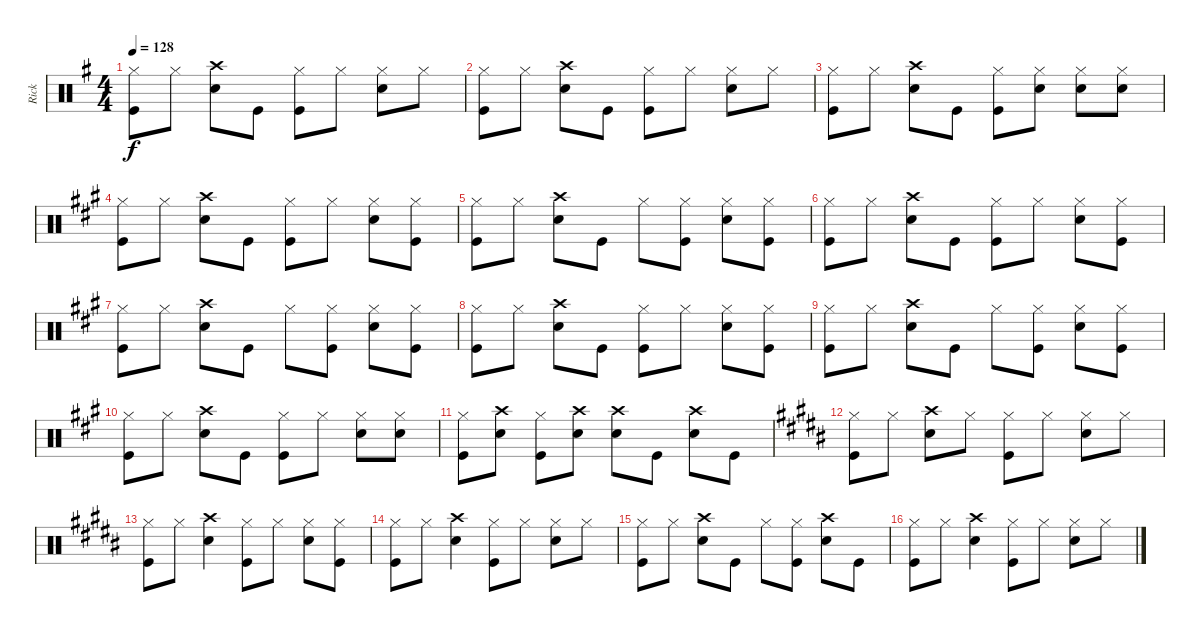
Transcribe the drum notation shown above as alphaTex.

\track ("Rick" "Rick") {instrument percussion}
\staff {score}
\articulation defaults
\ts (4 4)
\tempo 128
\clef neutral
\ks g
("Hi-Hat (closed)" "Kick (hit)").8{dy f} "Hi-Hat (closed)".8 ("Crash high (hit)" "Snare (hit) 2").8 "Kick (hit)".8 ("Hi-Hat (closed)" "Kick (hit)").8 "Hi-Hat (closed)".8 ("Hi-Hat (closed)" "Snare (hit) 2").8 "Hi-Hat (closed)".8 |
("Hi-Hat (closed)" "Kick (hit)").8 "Hi-Hat (closed)".8 ("Crash high (hit)" "Snare (hit) 2").8 "Kick (hit)".8 ("Hi-Hat (closed)" "Kick (hit)").8 "Hi-Hat (closed)".8 ("Hi-Hat (closed)" "Snare (hit) 2").8 "Hi-Hat (closed)".8 |
("Hi-Hat (closed)" "Kick (hit)").8 "Hi-Hat (closed)".8 ("Crash high (hit)" "Snare (hit) 2").8 "Kick (hit)".8 ("Hi-Hat (closed)" "Kick (hit)").8 ("Hi-Hat (closed)" "Snare (hit) 2").8 ("Hi-Hat (closed)" "Snare (hit) 2").8 ("Hi-Hat (closed)" "Snare (hit) 2").8 |
\ks a
("Hi-Hat (closed)" "Kick (hit)").8 "Hi-Hat (closed)".8 ("Crash high (hit)" "Snare (hit) 2").8 "Kick (hit)".8 ("Hi-Hat (closed)" "Kick (hit)").8 "Hi-Hat (closed)".8 ("Hi-Hat (closed)" "Snare (hit) 2").8 ("Hi-Hat (closed)" "Kick (hit)").8 |
("Hi-Hat (closed)" "Kick (hit)").8 "Hi-Hat (closed)".8 ("Crash high (hit)" "Snare (hit) 2").8 "Kick (hit)".8 "Hi-Hat (closed)".8 ("Hi-Hat (closed)" "Kick (hit)").8 ("Hi-Hat (closed)" "Snare (hit) 2").8 ("Hi-Hat (closed)" "Kick (hit)").8 |
("Hi-Hat (closed)" "Kick (hit)").8 "Hi-Hat (closed)".8 ("Crash high (hit)" "Snare (hit) 2").8 "Kick (hit)".8 ("Hi-Hat (closed)" "Kick (hit)").8 "Hi-Hat (closed)".8 ("Hi-Hat (closed)" "Snare (hit) 2").8 ("Hi-Hat (closed)" "Kick (hit)").8 |
("Hi-Hat (closed)" "Kick (hit)").8 "Hi-Hat (closed)".8 ("Crash high (hit)" "Snare (hit) 2").8 "Kick (hit)".8 "Hi-Hat (closed)".8 ("Hi-Hat (closed)" "Kick (hit)").8 ("Hi-Hat (closed)" "Snare (hit) 2").8 ("Hi-Hat (closed)" "Kick (hit)").8 |
("Hi-Hat (closed)" "Kick (hit)").8 "Hi-Hat (closed)".8 ("Crash high (hit)" "Snare (hit) 2").8 "Kick (hit)".8 ("Hi-Hat (closed)" "Kick (hit)").8 "Hi-Hat (closed)".8 ("Hi-Hat (closed)" "Snare (hit) 2").8 ("Hi-Hat (closed)" "Kick (hit)").8 |
("Hi-Hat (closed)" "Kick (hit)").8 "Hi-Hat (closed)".8 ("Crash high (hit)" "Snare (hit) 2").8 "Kick (hit)".8 "Hi-Hat (closed)".8 ("Hi-Hat (closed)" "Kick (hit)").8 ("Hi-Hat (closed)" "Snare (hit) 2").8 ("Hi-Hat (closed)" "Kick (hit)").8 |
("Hi-Hat (closed)" "Kick (hit)").8 "Hi-Hat (closed)".8 ("Crash high (hit)" "Snare (hit) 2").8 "Kick (hit)".8 ("Hi-Hat (closed)" "Kick (hit)").8 "Hi-Hat (closed)".8 ("Hi-Hat (closed)" "Snare (hit) 2").8 ("Hi-Hat (closed)" "Snare (hit) 2").8 |
("Hi-Hat (closed)" "Kick (hit)").8 ("Crash high (hit)" "Snare (hit) 2").8 ("Hi-Hat (closed)" "Kick (hit)").8 ("Crash high (hit)" "Snare (hit) 2").8 ("Crash high (hit)" "Snare (hit) 2").8 "Kick (hit)".8 ("Crash high (hit)" "Snare (hit) 2").8 "Kick (hit)".8 |
\ks b
("Hi-Hat (closed)" "Kick (hit)").8 "Hi-Hat (closed)".8 ("Crash high (hit)" "Snare (hit) 2").8 "Hi-Hat (closed)".8 ("Hi-Hat (closed)" "Kick (hit)").8 "Hi-Hat (closed)".8 ("Hi-Hat (closed)" "Snare (hit) 2").8 "Hi-Hat (closed)".8 |
("Hi-Hat (closed)" "Kick (hit)").8 "Hi-Hat (closed)".8 ("Crash high (hit)" "Snare (hit) 2").4 ("Hi-Hat (closed)" "Kick (hit)").8 "Hi-Hat (closed)".8 ("Hi-Hat (closed)" "Snare (hit) 2").8 ("Hi-Hat (closed)" "Kick (hit)").8 |
("Hi-Hat (closed)" "Kick (hit)").8 "Hi-Hat (closed)".8 ("Crash high (hit)" "Snare (hit) 2").4 ("Hi-Hat (closed)" "Kick (hit)").8 "Hi-Hat (closed)".8 ("Hi-Hat (closed)" "Snare (hit) 2").8 "Hi-Hat (closed)".8 |
("Hi-Hat (closed)" "Kick (hit)").8 "Hi-Hat (closed)".8 ("Crash high (hit)" "Snare (hit) 2").8 "Kick (hit)".8 "Hi-Hat (closed)".8 ("Hi-Hat (closed)" "Kick (hit)").8 ("Crash high (hit)" "Snare (hit) 2").8 "Kick (hit)".8 |
("Hi-Hat (closed)" "Kick (hit)").8 "Hi-Hat (closed)".8 ("Crash high (hit)" "Snare (hit) 2").4 ("Hi-Hat (closed)" "Kick (hit)").8 "Hi-Hat (closed)".8 ("Hi-Hat (closed)" "Snare (hit) 2").8 "Hi-Hat (closed)".8
